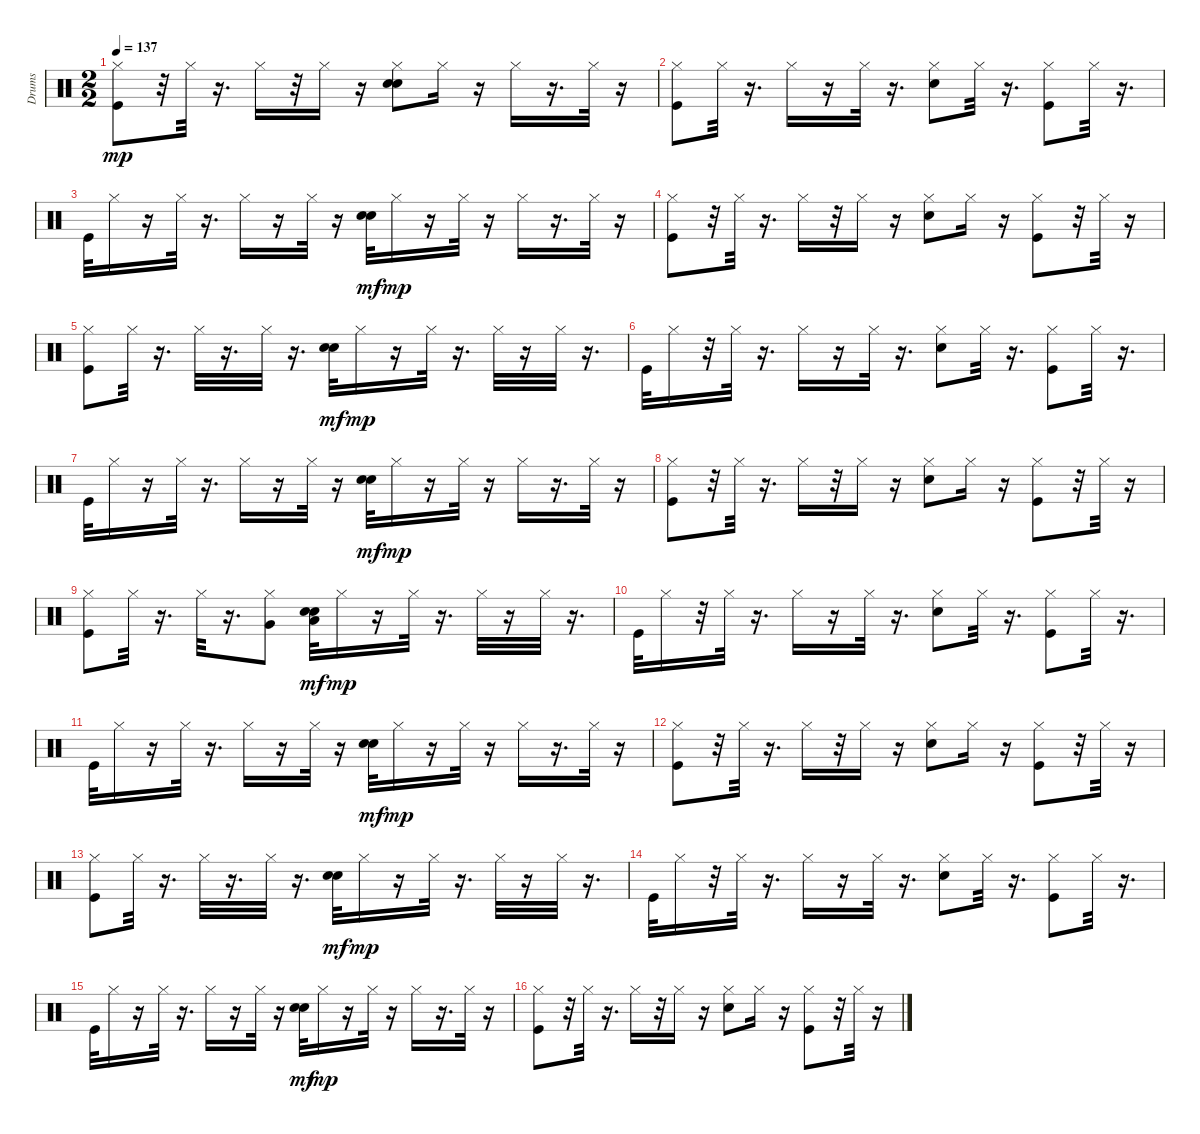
\track ("Drums" "Drums") {instrument percussion}
\staff {score}
\articulation defaults
\ts (2 2)
\tempo 137
\clef neutral
\ks c
("Kick (hit)" "Hi-Hat (closed)").8{dy mp} r.32 "Hi-Hat (closed)".32 r.16{d} "Hi-Hat (closed)".16 r.32 "Hi-Hat (closed)".16 r.16 ("Snare (hit) 2" "Hand Clap (hit)" "Hi-Hat (closed)").8 "Hi-Hat (closed)".16 r.16 "Hi-Hat (closed)".16 r.16{d} "Hi-Hat (closed)".32 r.16 |
("Kick (hit)" "Hi-Hat (closed)").8 "Hi-Hat (closed)".32 r.16{d} "Hi-Hat (closed)".16 r.16 "Hi-Hat (closed)".32 r.16{d} ("Snare (hit) 2" "Hi-Hat (closed)").8 "Hi-Hat (closed)".32 r.16{d} ("Kick (hit)" "Hi-Hat (closed)").8 "Hi-Hat (closed)".32 r.16{d} |
"Kick (hit)".32 "Hi-Hat (closed)".16 r.16 "Hi-Hat (closed)".32 r.16{d} "Hi-Hat (closed)".16 r.16 "Hi-Hat (closed)".32 r.16 ("Snare (hit) 2" "Hand Clap (hit)").32{dy mf} "Hi-Hat (closed)".16{dy mp} r.16 "Hi-Hat (closed)".32 r.16 "Hi-Hat (closed)".16 r.16{d} "Hi-Hat (closed)".32 r.16 |
("Kick (hit)" "Hi-Hat (closed)").8 r.32 "Hi-Hat (closed)".32 r.16{d} "Hi-Hat (closed)".16 r.32 "Hi-Hat (closed)".16 r.16 ("Snare (hit) 2" "Hi-Hat (closed)").8 "Hi-Hat (closed)".16 r.16 ("Kick (hit)" "Hi-Hat (closed)").8 r.32 "Hi-Hat (closed)".32 r.16 |
("Kick (hit)" "Hi-Hat (closed)").8 "Hi-Hat (closed)".32 r.16{d} "Hi-Hat (closed)".32 r.16{d} "Hi-Hat (closed)".32 r.16{d} ("Snare (hit) 2" "Hand Clap (hit)").32{dy mf} "Hi-Hat (closed)".16{dy mp} r.16 "Hi-Hat (closed)".32 r.16{d} "Hi-Hat (closed)".32 r.16 "Hi-Hat (closed)".32 r.16{d} |
"Kick (hit)".32 "Hi-Hat (closed)".16 r.32 "Hi-Hat (closed)".32 r.16{d} "Hi-Hat (closed)".16 r.16 "Hi-Hat (closed)".32 r.16{d} ("Snare (hit) 2" "Hi-Hat (closed)").8 "Hi-Hat (closed)".32 r.16{d} ("Kick (hit)" "Hi-Hat (closed)").8 "Hi-Hat (closed)".32 r.16{d} |
"Kick (hit)".32 "Hi-Hat (closed)".16 r.16 "Hi-Hat (closed)".32 r.16{d} "Hi-Hat (closed)".16 r.16 "Hi-Hat (closed)".32 r.16 ("Snare (hit) 2" "Hand Clap (hit)").32{dy mf} "Hi-Hat (closed)".16{dy mp} r.16 "Hi-Hat (closed)".32 r.16 "Hi-Hat (closed)".16 r.16{d} "Hi-Hat (closed)".32 r.16 |
("Kick (hit)" "Hi-Hat (closed)").8 r.32 "Hi-Hat (closed)".32 r.16{d} "Hi-Hat (closed)".16 r.32 "Hi-Hat (closed)".16 r.16 ("Snare (hit) 2" "Hi-Hat (closed)").8 "Hi-Hat (closed)".16 r.16 ("Kick (hit)" "Hi-Hat (closed)").8 r.32 "Hi-Hat (closed)".32 r.16 |
("Kick (hit)" "Hi-Hat (closed)").8 "Hi-Hat (closed)".32 r.16{d} "Hi-Hat (closed)".32 r.16{d} ("Very Low Tom (hit)" "Hi-Hat (closed)").8 ("Snare (hit) 2" "Low Floor Tom (hit)" "Hand Clap (hit)").32{dy mf} "Hi-Hat (closed)".16{dy mp} r.16 "Hi-Hat (closed)".32 r.16{d} "Hi-Hat (closed)".32 r.16 "Hi-Hat (closed)".32 r.16{d} |
"Kick (hit)".32 "Hi-Hat (closed)".16 r.32 "Hi-Hat (closed)".32 r.16{d} "Hi-Hat (closed)".16 r.16 "Hi-Hat (closed)".32 r.16{d} ("Snare (hit) 2" "Hi-Hat (closed)").8 "Hi-Hat (closed)".32 r.16{d} ("Kick (hit)" "Hi-Hat (closed)").8 "Hi-Hat (closed)".32 r.16{d} |
"Kick (hit)".32 "Hi-Hat (closed)".16 r.16 "Hi-Hat (closed)".32 r.16{d} "Hi-Hat (closed)".16 r.16 "Hi-Hat (closed)".32 r.16 ("Snare (hit) 2" "Hand Clap (hit)").32{dy mf} "Hi-Hat (closed)".16{dy mp} r.16 "Hi-Hat (closed)".32 r.16 "Hi-Hat (closed)".16 r.16{d} "Hi-Hat (closed)".32 r.16 |
("Kick (hit)" "Hi-Hat (closed)").8 r.32 "Hi-Hat (closed)".32 r.16{d} "Hi-Hat (closed)".16 r.32 "Hi-Hat (closed)".16 r.16 ("Snare (hit) 2" "Hi-Hat (closed)").8 "Hi-Hat (closed)".16 r.16 ("Kick (hit)" "Hi-Hat (closed)").8 r.32 "Hi-Hat (closed)".32 r.16 |
("Kick (hit)" "Hi-Hat (closed)").8 "Hi-Hat (closed)".32 r.16{d} "Hi-Hat (closed)".32 r.16{d} "Hi-Hat (closed)".32 r.16{d} ("Snare (hit) 2" "Hand Clap (hit)").32{dy mf} "Hi-Hat (closed)".16{dy mp} r.16 "Hi-Hat (closed)".32 r.16{d} "Hi-Hat (closed)".32 r.16 "Hi-Hat (closed)".32 r.16{d} |
"Kick (hit)".32 "Hi-Hat (closed)".16 r.32 "Hi-Hat (closed)".32 r.16{d} "Hi-Hat (closed)".16 r.16 "Hi-Hat (closed)".32 r.16{d} ("Snare (hit) 2" "Hi-Hat (closed)").8 "Hi-Hat (closed)".32 r.16{d} ("Kick (hit)" "Hi-Hat (closed)").8 "Hi-Hat (closed)".32 r.16{d} |
"Kick (hit)".32 "Hi-Hat (closed)".16 r.16 "Hi-Hat (closed)".32 r.16{d} "Hi-Hat (closed)".16 r.16 "Hi-Hat (closed)".32 r.16 ("Snare (hit) 2" "Hand Clap (hit)").32{dy mf} "Hi-Hat (closed)".16{dy mp} r.16 "Hi-Hat (closed)".32 r.16 "Hi-Hat (closed)".16 r.16{d} "Hi-Hat (closed)".32 r.16 |
("Kick (hit)" "Hi-Hat (closed)").8 r.32 "Hi-Hat (closed)".32 r.16{d} "Hi-Hat (closed)".16 r.32 "Hi-Hat (closed)".16 r.16 ("Snare (hit) 2" "Hi-Hat (closed)").8 "Hi-Hat (closed)".16 r.16 ("Kick (hit)" "Hi-Hat (closed)").8 r.32 "Hi-Hat (closed)".32 r.16
